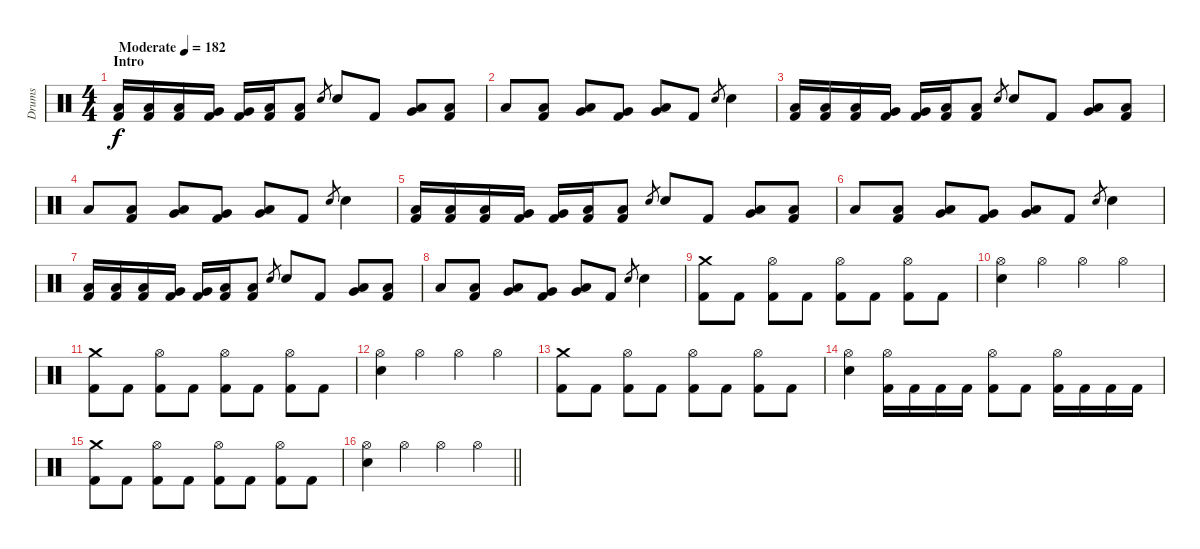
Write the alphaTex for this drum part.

\track ("Drums" "Drums") {instrument percussion}
\staff {score}
\articulation defaults
\ts (4 4)
\section ("" "Intro")
\tempo (182 "Moderate")
\clef neutral
\ks c
("Low Tom (hit)" "Kick (hit) 2").16{dy f} ("Low Tom (hit)" "Kick (hit) 2").16 ("Low Tom (hit)" "Kick (hit) 2").16 ("Very Low Tom (hit)" "Kick (hit) 2").16 ("Very Low Tom (hit)" "Kick (hit) 2").16 ("Low Floor Tom (hit)" "Kick (hit) 2").16 ("Low Floor Tom (hit)" "Kick (hit) 2").8 "Electric Snare (hit)".8{gr} "Electric Snare (hit)".8 "Kick (hit) 2".8 ("Low Tom (hit)" "Very Low Tom (hit)").8 ("Low Tom (hit)" "Kick (hit) 2").8 |
"Low Floor Tom (hit)".8 ("Low Tom (hit)" "Kick (hit) 2").8 ("Low Tom (hit)" "Very Low Tom (hit)").8 ("Very Low Tom (hit)" "Kick (hit) 2").8 ("Very Low Tom (hit)" "Low Floor Tom (hit)").8 "Kick (hit) 2".8 "Electric Snare (hit)".8{gr} "Electric Snare (hit)".4 |
("Low Tom (hit)" "Kick (hit) 2").16 ("Low Tom (hit)" "Kick (hit) 2").16 ("Low Tom (hit)" "Kick (hit) 2").16 ("Very Low Tom (hit)" "Kick (hit) 2").16 ("Very Low Tom (hit)" "Kick (hit) 2").16 ("Low Floor Tom (hit)" "Kick (hit) 2").16 ("Low Floor Tom (hit)" "Kick (hit) 2").8 "Electric Snare (hit)".8{gr} "Electric Snare (hit)".8 "Kick (hit) 2".8 ("Low Tom (hit)" "Very Low Tom (hit)").8 ("Low Tom (hit)" "Kick (hit) 2").8 |
"Low Floor Tom (hit)".8 ("Low Tom (hit)" "Kick (hit) 2").8 ("Low Tom (hit)" "Very Low Tom (hit)").8 ("Very Low Tom (hit)" "Kick (hit) 2").8 ("Very Low Tom (hit)" "Low Floor Tom (hit)").8 "Kick (hit) 2".8 "Electric Snare (hit)".8{gr} "Electric Snare (hit)".4 |
("Low Tom (hit)" "Kick (hit) 2").16 ("Low Tom (hit)" "Kick (hit) 2").16 ("Low Tom (hit)" "Kick (hit) 2").16 ("Very Low Tom (hit)" "Kick (hit) 2").16 ("Very Low Tom (hit)" "Kick (hit) 2").16 ("Low Floor Tom (hit)" "Kick (hit) 2").16 ("Low Floor Tom (hit)" "Kick (hit) 2").8 "Electric Snare (hit)".8{gr} "Electric Snare (hit)".8 "Kick (hit) 2".8 ("Low Tom (hit)" "Very Low Tom (hit)").8 ("Low Tom (hit)" "Kick (hit) 2").8 |
"Low Floor Tom (hit)".8 ("Low Tom (hit)" "Kick (hit) 2").8 ("Low Tom (hit)" "Very Low Tom (hit)").8 ("Very Low Tom (hit)" "Kick (hit) 2").8 ("Very Low Tom (hit)" "Low Floor Tom (hit)").8 "Kick (hit) 2".8 "Electric Snare (hit)".8{gr} "Electric Snare (hit)".4 |
("Low Tom (hit)" "Kick (hit) 2").16 ("Low Tom (hit)" "Kick (hit) 2").16 ("Low Tom (hit)" "Kick (hit) 2").16 ("Very Low Tom (hit)" "Kick (hit) 2").16 ("Very Low Tom (hit)" "Kick (hit) 2").16 ("Low Floor Tom (hit)" "Kick (hit) 2").16 ("Low Floor Tom (hit)" "Kick (hit) 2").8 "Electric Snare (hit)".8{gr} "Electric Snare (hit)".8 "Kick (hit) 2".8 ("Low Tom (hit)" "Very Low Tom (hit)").8 ("Low Tom (hit)" "Kick (hit) 2").8 |
"Low Floor Tom (hit)".8 ("Low Tom (hit)" "Kick (hit) 2").8 ("Low Tom (hit)" "Very Low Tom (hit)").8 ("Very Low Tom (hit)" "Kick (hit) 2").8 ("Very Low Tom (hit)" "Low Floor Tom (hit)").8 "Kick (hit) 2".8 "Electric Snare (hit)".8{gr} "Electric Snare (hit)".4 |
("Crash medium (hit)" "Kick (hit) 2").8 "Kick (hit) 2".8 ("Hi-Hat (open)" "Kick (hit) 2").8 "Kick (hit) 2".8 ("Hi-Hat (open)" "Kick (hit) 2").8 "Kick (hit) 2".8 ("Hi-Hat (open)" "Kick (hit) 2").8 "Kick (hit) 2".8 |
("Hi-Hat (open)" "Electric Snare (hit)").4 "Hi-Hat (open)".4 "Hi-Hat (open)".4 "Hi-Hat (open)".4 |
("Crash medium (hit)" "Kick (hit) 2").8 "Kick (hit) 2".8 ("Hi-Hat (open)" "Kick (hit) 2").8 "Kick (hit) 2".8 ("Hi-Hat (open)" "Kick (hit) 2").8 "Kick (hit) 2".8 ("Hi-Hat (open)" "Kick (hit) 2").8 "Kick (hit) 2".8 |
("Hi-Hat (open)" "Electric Snare (hit)").4 "Hi-Hat (open)".4 "Hi-Hat (open)".4 "Hi-Hat (open)".4 |
("Crash medium (hit)" "Kick (hit) 2").8 "Kick (hit) 2".8 ("Hi-Hat (open)" "Kick (hit) 2").8 "Kick (hit) 2".8 ("Hi-Hat (open)" "Kick (hit) 2").8 "Kick (hit) 2".8 ("Hi-Hat (open)" "Kick (hit) 2").8 "Kick (hit) 2".8 |
("Hi-Hat (open)" "Electric Snare (hit)").4 ("Hi-Hat (open)" "Kick (hit) 2").16 "Kick (hit) 2".16 "Kick (hit) 2".16 "Kick (hit) 2".16 ("Hi-Hat (open)" "Kick (hit) 2").8 "Kick (hit) 2".8 ("Hi-Hat (open)" "Kick (hit) 2").16 "Kick (hit) 2".16 "Kick (hit) 2".16 "Kick (hit) 2".16 |
("Crash medium (hit)" "Kick (hit) 2").8 "Kick (hit) 2".8 ("Hi-Hat (open)" "Kick (hit) 2").8 "Kick (hit) 2".8 ("Hi-Hat (open)" "Kick (hit) 2").8 "Kick (hit) 2".8 ("Hi-Hat (open)" "Kick (hit) 2").8 "Kick (hit) 2".8 |
\barLineRight lightlight
("Hi-Hat (open)" "Electric Snare (hit)").4 "Hi-Hat (open)".4 "Hi-Hat (open)".4 "Hi-Hat (open)".4
